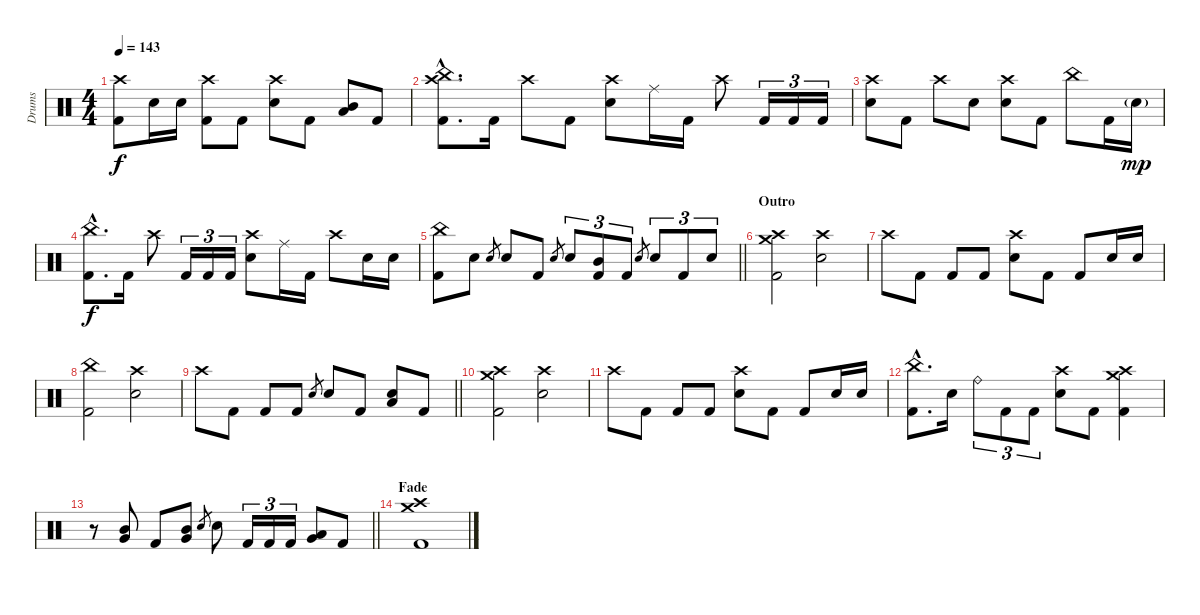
\track ("Drums" "Drums") {instrument percussion}
\staff {score}
\articulation defaults
\ts (4 4)
\tempo 143
\clef neutral
\ks c
("Crash high (hit)" "Kick (hit) 2").8{dy f} "Electric Snare (hit)".16 "Electric Snare (hit)".16 ("Crash high (hit)" "Kick (hit) 2").8 "Kick (hit) 2".8 ("Crash high (hit)" "Electric Snare (hit)").8 "Kick (hit) 2".8 ("Mid Tom (hit)" "Low Floor Tom (hit)").8{bu 60} "Kick (hit) 2".8 |
("Crash high (hit)"{hac} "China (hit)"{hac} "Kick (hit) 2"{hac}).8{d} "Kick (hit) 2".16 "Crash high (hit)".8 "Kick (hit) 2".8 ("Crash high (hit)" "Electric Snare (hit)").8 "Ride (middle)".16 "Kick (hit) 2".16 "Crash high (hit)".8 "Kick (hit) 2".16{tu (3 2)} "Kick (hit) 2".16{tu (3 2)} "Kick (hit) 2".16{tu (3 2)} |
("Crash high (hit)" "Electric Snare (hit)").8 "Kick (hit) 2".8 "Crash high (hit)".8 "Electric Snare (hit)".8 ("Crash high (hit)" "Electric Snare (hit)").8 "Kick (hit) 2".8 "China (hit)".8 "Kick (hit) 2".16 "Electric Snare (hit)"{g}.16{dy mp} |
("China (hit)"{hac} "Kick (hit) 2"{hac}).8{d dy f} "Kick (hit) 2".16 "Crash high (hit)".8 "Kick (hit) 2".16{tu (3 2)} "Kick (hit) 2".16{tu (3 2)} "Kick (hit) 2".16{tu (3 2)} ("Crash high (hit)" "Electric Snare (hit)").8 "Ride (middle)".16 "Kick (hit) 2".16 "Crash high (hit)".8 "Electric Snare (hit)".16 "Electric Snare (hit)".16 |
\barLineRight lightlight
("China (hit)" "Kick (hit) 2").8 "Electric Snare (hit)".8 "Electric Snare (hit)".8{gr} "Electric Snare (hit)".8 "Kick (hit) 2".8 "Electric Snare (hit)".8{gr} "Electric Snare (hit)".8{tu (3 2)} ("Mid Tom (hit)" "Kick (hit) 2").8{tu (3 2)} "Kick (hit) 2".8{tu (3 2)} "Electric Snare (hit)".8{gr} "Electric Snare (hit)".8{tu (3 2)} "Kick (hit) 2".8{tu (3 2)} "Electric Snare (hit)".8{tu (3 2)} |
\section ("" "Outro")
("Crash high (hit)" "Crash medium (hit)" "Kick (hit) 2").2 ("Crash high (hit)" "Electric Snare (hit)").2 |
"Crash high (hit)".8 "Kick (hit) 2".8 "Kick (hit) 2".8 "Kick (hit) 2".8 ("Crash high (hit)" "Electric Snare (hit)").8 "Kick (hit) 2".8 "Kick (hit) 2".8 "Electric Snare (hit)".16 "Electric Snare (hit)".16 |
("China (hit)" "Kick (hit) 2").2 ("Crash high (hit)" "Electric Snare (hit)").2 |
\barLineRight lightlight "Crash high (hit)".8 "Kick (hit) 2".8 "Kick (hit) 2".8 "Kick (hit) 2".8 "Electric Snare (hit)".8{gr} "Electric Snare (hit)".8 "Kick (hit) 2".8
("Low Floor Tom (hit)" "Electric Snare (hit)").8 "Kick (hit) 2".8 |
("Crash high (hit)" "Crash medium (hit)" "Kick (hit) 2").2 ("Crash high (hit)" "Electric Snare (hit)").2 |
"Crash high (hit)".8 "Kick (hit) 2".8 "Kick (hit) 2".8 "Kick (hit) 2".8 ("Crash high (hit)" "Electric Snare (hit)").8 "Kick (hit) 2".8 "Kick (hit) 2".8 "Electric Snare (hit)".16 "Electric Snare (hit)".16 |
("China (hit)"{hac} "Kick (hit) 2"{hac}).8{d} "Electric Snare (hit)".16 "Ride (bell)".8{tu (3 2)} "Kick (hit) 2".8{tu (3 2)} "Kick (hit) 2".8{tu (3 2)} ("Crash high (hit)" "Electric Snare (hit)").8 "Kick (hit) 2".8 ("Crash high (hit)" "Crash medium (hit)" "Kick (hit) 2").4 |
\barLineRight lightlight
r.8 ("Mid Tom (hit)" "Very Low Tom (hit)").8 "Kick (hit) 2".8 ("Mid Tom (hit)" "Very Low Tom (hit)").8 "Electric Snare (hit)".8{gr} "Electric Snare (hit)".8 "Kick (hit) 2".16{tu (3 2)} "Kick (hit) 2".16{tu (3 2)} "Kick (hit) 2".16{tu (3 2)} ("Low Floor Tom (hit)" "Very Low Tom (hit)").8 "Kick (hit) 2".8 |
\section ("" "Fade")
("Crash high (hit)" "Crash medium (hit)" "Kick (hit) 2").1
